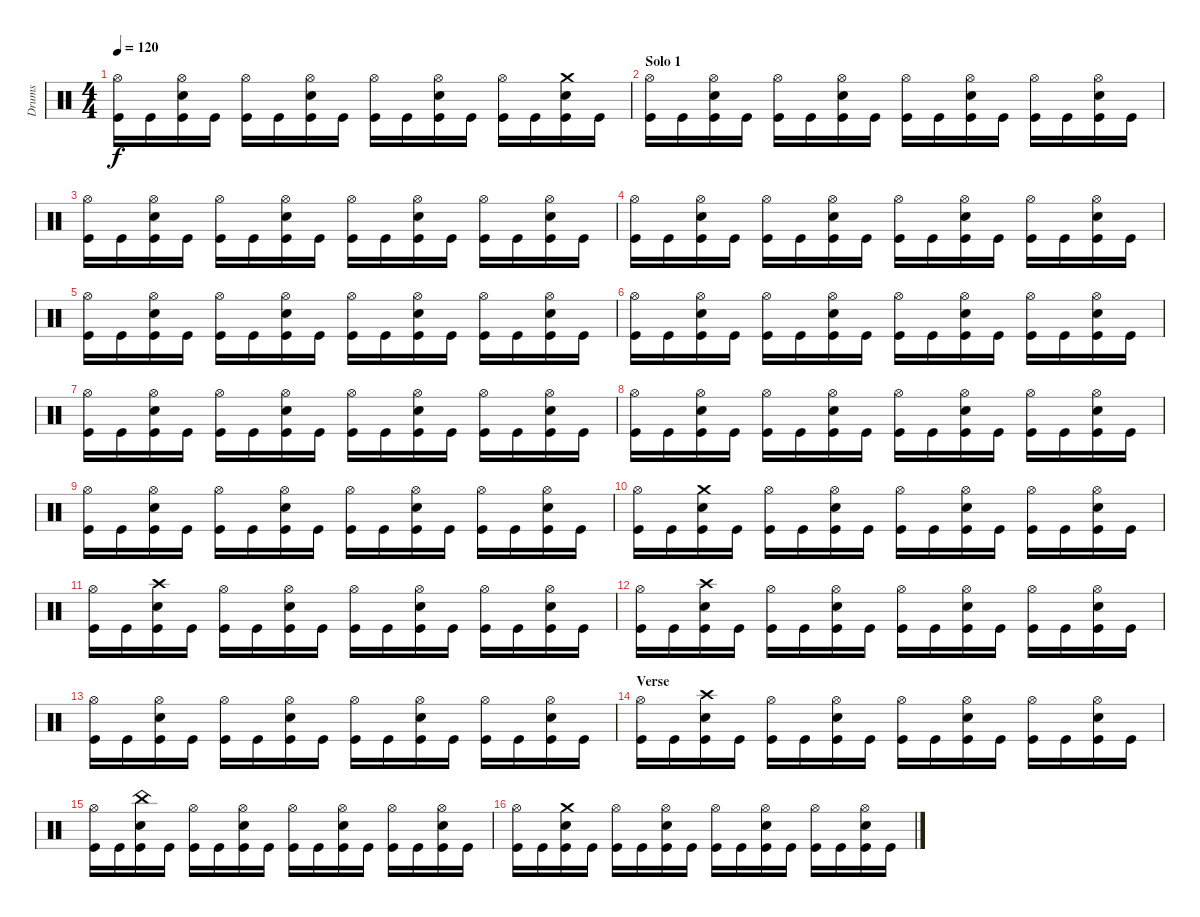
\track ("Drums" "Drums") {instrument percussion}
\staff {score}
\articulation defaults
\ts (4 4)
\tempo 120
\clef neutral
\ks c
("Hi-Hat (open)" "Kick (hit)").16{dy f} "Kick (hit)".16 ("Hi-Hat (open)" "Snare (hit) 2" "Kick (hit)").16 "Kick (hit)".16 ("Hi-Hat (open)" "Kick (hit)").16 "Kick (hit)".16 ("Hi-Hat (open)" "Snare (hit) 2" "Kick (hit)").16 "Kick (hit)".16 ("Hi-Hat (open)" "Kick (hit)").16 "Kick (hit)".16 ("Hi-Hat (open)" "Snare (hit) 2" "Kick (hit)").16 "Kick (hit)".16 ("Hi-Hat (open)" "Kick (hit)").16 "Kick (hit)".16 ("Crash medium (hit)" "Snare (hit) 2" "Kick (hit)").16 "Kick (hit)".16 |
\section ("" "Solo 1")
("Hi-Hat (open)" "Kick (hit)").16 "Kick (hit)".16 ("Hi-Hat (open)" "Snare (hit) 2" "Kick (hit)").16 "Kick (hit)".16 ("Hi-Hat (open)" "Kick (hit)").16 "Kick (hit)".16 ("Hi-Hat (open)" "Snare (hit) 2" "Kick (hit)").16 "Kick (hit)".16 ("Hi-Hat (open)" "Kick (hit)").16 "Kick (hit)".16 ("Hi-Hat (open)" "Snare (hit) 2" "Kick (hit)").16 "Kick (hit)".16 ("Hi-Hat (open)" "Kick (hit)").16 "Kick (hit)".16 ("Hi-Hat (open)" "Snare (hit) 2" "Kick (hit)").16 "Kick (hit)".16 |
("Hi-Hat (open)" "Kick (hit)").16 "Kick (hit)".16 ("Hi-Hat (open)" "Snare (hit) 2" "Kick (hit)").16 "Kick (hit)".16 ("Hi-Hat (open)" "Kick (hit)").16 "Kick (hit)".16 ("Hi-Hat (open)" "Snare (hit) 2" "Kick (hit)").16 "Kick (hit)".16 ("Hi-Hat (open)" "Kick (hit)").16 "Kick (hit)".16 ("Hi-Hat (open)" "Snare (hit) 2" "Kick (hit)").16 "Kick (hit)".16 ("Hi-Hat (open)" "Kick (hit)").16 "Kick (hit)".16 ("Hi-Hat (open)" "Snare (hit) 2" "Kick (hit)").16 "Kick (hit)".16 |
("Hi-Hat (open)" "Kick (hit)").16 "Kick (hit)".16 ("Hi-Hat (open)" "Snare (hit) 2" "Kick (hit)").16 "Kick (hit)".16 ("Hi-Hat (open)" "Kick (hit)").16 "Kick (hit)".16 ("Hi-Hat (open)" "Snare (hit) 2" "Kick (hit)").16 "Kick (hit)".16 ("Hi-Hat (open)" "Kick (hit)").16 "Kick (hit)".16 ("Hi-Hat (open)" "Snare (hit) 2" "Kick (hit)").16 "Kick (hit)".16 ("Hi-Hat (open)" "Kick (hit)").16 "Kick (hit)".16 ("Hi-Hat (open)" "Snare (hit) 2" "Kick (hit)").16 "Kick (hit)".16 |
("Hi-Hat (open)" "Kick (hit)").16 "Kick (hit)".16 ("Hi-Hat (open)" "Snare (hit) 2" "Kick (hit)").16 "Kick (hit)".16 ("Hi-Hat (open)" "Kick (hit)").16 "Kick (hit)".16 ("Hi-Hat (open)" "Snare (hit) 2" "Kick (hit)").16 "Kick (hit)".16 ("Hi-Hat (open)" "Kick (hit)").16 "Kick (hit)".16 ("Hi-Hat (open)" "Snare (hit) 2" "Kick (hit)").16 "Kick (hit)".16 ("Hi-Hat (open)" "Kick (hit)").16 "Kick (hit)".16 ("Hi-Hat (open)" "Snare (hit) 2" "Kick (hit)").16 "Kick (hit)".16 |
("Hi-Hat (open)" "Kick (hit)").16 "Kick (hit)".16 ("Hi-Hat (open)" "Snare (hit) 2" "Kick (hit)").16 "Kick (hit)".16 ("Hi-Hat (open)" "Kick (hit)").16 "Kick (hit)".16 ("Hi-Hat (open)" "Snare (hit) 2" "Kick (hit)").16 "Kick (hit)".16 ("Hi-Hat (open)" "Kick (hit)").16 "Kick (hit)".16 ("Hi-Hat (open)" "Snare (hit) 2" "Kick (hit)").16 "Kick (hit)".16 ("Hi-Hat (open)" "Kick (hit)").16 "Kick (hit)".16 ("Hi-Hat (open)" "Snare (hit) 2" "Kick (hit)").16 "Kick (hit)".16 |
("Hi-Hat (open)" "Kick (hit)").16 "Kick (hit)".16 ("Hi-Hat (open)" "Snare (hit) 2" "Kick (hit)").16 "Kick (hit)".16 ("Hi-Hat (open)" "Kick (hit)").16 "Kick (hit)".16 ("Hi-Hat (open)" "Snare (hit) 2" "Kick (hit)").16 "Kick (hit)".16 ("Hi-Hat (open)" "Kick (hit)").16 "Kick (hit)".16 ("Hi-Hat (open)" "Snare (hit) 2" "Kick (hit)").16 "Kick (hit)".16 ("Hi-Hat (open)" "Kick (hit)").16 "Kick (hit)".16 ("Hi-Hat (open)" "Snare (hit) 2" "Kick (hit)").16 "Kick (hit)".16 |
("Hi-Hat (open)" "Kick (hit)").16 "Kick (hit)".16 ("Hi-Hat (open)" "Snare (hit) 2" "Kick (hit)").16 "Kick (hit)".16 ("Hi-Hat (open)" "Kick (hit)").16 "Kick (hit)".16 ("Hi-Hat (open)" "Snare (hit) 2" "Kick (hit)").16 "Kick (hit)".16 ("Hi-Hat (open)" "Kick (hit)").16 "Kick (hit)".16 ("Hi-Hat (open)" "Snare (hit) 2" "Kick (hit)").16 "Kick (hit)".16 ("Hi-Hat (open)" "Kick (hit)").16 "Kick (hit)".16 ("Hi-Hat (open)" "Snare (hit) 2" "Kick (hit)").16 "Kick (hit)".16 |
("Hi-Hat (open)" "Kick (hit)").16 "Kick (hit)".16 ("Hi-Hat (open)" "Snare (hit) 2" "Kick (hit)").16 "Kick (hit)".16 ("Hi-Hat (open)" "Kick (hit)").16 "Kick (hit)".16 ("Hi-Hat (open)" "Snare (hit) 2" "Kick (hit)").16 "Kick (hit)".16 ("Hi-Hat (open)" "Kick (hit)").16 "Kick (hit)".16 ("Hi-Hat (open)" "Snare (hit) 2" "Kick (hit)").16 "Kick (hit)".16 ("Hi-Hat (open)" "Kick (hit)").16 "Kick (hit)".16 ("Hi-Hat (open)" "Snare (hit) 2" "Kick (hit)").16 "Kick (hit)".16 |
("Hi-Hat (open)" "Kick (hit)").16 "Kick (hit)".16 ("Crash medium (hit)" "Snare (hit) 2" "Kick (hit)").16 "Kick (hit)".16 ("Hi-Hat (open)" "Kick (hit)").16 "Kick (hit)".16 ("Hi-Hat (open)" "Snare (hit) 2" "Kick (hit)").16 "Kick (hit)".16 ("Hi-Hat (open)" "Kick (hit)").16 "Kick (hit)".16 ("Hi-Hat (open)" "Snare (hit) 2" "Kick (hit)").16 "Kick (hit)".16 ("Hi-Hat (open)" "Kick (hit)").16 "Kick (hit)".16 ("Hi-Hat (open)" "Snare (hit) 2" "Kick (hit)").16 "Kick (hit)".16 |
("Hi-Hat (open)" "Kick (hit)").16 "Kick (hit)".16 ("Crash high (hit)" "Snare (hit) 2" "Kick (hit)").16 "Kick (hit)".16 ("Hi-Hat (open)" "Kick (hit)").16 "Kick (hit)".16 ("Hi-Hat (open)" "Snare (hit) 2" "Kick (hit)").16 "Kick (hit)".16 ("Hi-Hat (open)" "Kick (hit)").16 "Kick (hit)".16 ("Hi-Hat (open)" "Snare (hit) 2" "Kick (hit)").16 "Kick (hit)".16 ("Hi-Hat (open)" "Kick (hit)").16 "Kick (hit)".16 ("Hi-Hat (open)" "Snare (hit) 2" "Kick (hit)").16 "Kick (hit)".16 |
("Hi-Hat (open)" "Kick (hit)").16 "Kick (hit)".16 ("Crash high (hit)" "Snare (hit) 2" "Kick (hit)").16 "Kick (hit)".16 ("Hi-Hat (open)" "Kick (hit)").16 "Kick (hit)".16 ("Hi-Hat (open)" "Snare (hit) 2" "Kick (hit)").16 "Kick (hit)".16 ("Hi-Hat (open)" "Kick (hit)").16 "Kick (hit)".16 ("Hi-Hat (open)" "Snare (hit) 2" "Kick (hit)").16 "Kick (hit)".16 ("Hi-Hat (open)" "Kick (hit)").16 "Kick (hit)".16 ("Hi-Hat (open)" "Snare (hit) 2" "Kick (hit)").16 "Kick (hit)".16 |
("Hi-Hat (open)" "Kick (hit)").16 "Kick (hit)".16 ("Hi-Hat (open)" "Snare (hit) 2" "Kick (hit)").16 "Kick (hit)".16 ("Hi-Hat (open)" "Kick (hit)").16 "Kick (hit)".16 ("Hi-Hat (open)" "Snare (hit) 2" "Kick (hit)").16 "Kick (hit)".16 ("Hi-Hat (open)" "Kick (hit)").16 "Kick (hit)".16 ("Hi-Hat (open)" "Snare (hit) 2" "Kick (hit)").16 "Kick (hit)".16 ("Hi-Hat (open)" "Kick (hit)").16 "Kick (hit)".16 ("Hi-Hat (open)" "Snare (hit) 2" "Kick (hit)").16 "Kick (hit)".16 |
\section ("" "Verse")
("Hi-Hat (open)" "Kick (hit)").16 "Kick (hit)".16 ("Crash high (hit)" "Snare (hit) 2" "Kick (hit)").16 "Kick (hit)".16 ("Hi-Hat (open)" "Kick (hit)").16 "Kick (hit)".16 ("Hi-Hat (open)" "Snare (hit) 2" "Kick (hit)").16 "Kick (hit)".16 ("Hi-Hat (open)" "Kick (hit)").16 "Kick (hit)".16 ("Hi-Hat (open)" "Snare (hit) 2" "Kick (hit)").16 "Kick (hit)".16 ("Hi-Hat (open)" "Kick (hit)").16 "Kick (hit)".16 ("Hi-Hat (open)" "Snare (hit) 2" "Kick (hit)").16 "Kick (hit)".16 |
("Hi-Hat (open)" "Kick (hit)").16 "Kick (hit)".16 ("China (hit)" "Snare (hit) 2" "Kick (hit)").16 "Kick (hit)".16 ("Hi-Hat (open)" "Kick (hit)").16 "Kick (hit)".16 ("Hi-Hat (open)" "Snare (hit) 2" "Kick (hit)").16 "Kick (hit)".16 ("Hi-Hat (open)" "Kick (hit)").16 "Kick (hit)".16 ("Hi-Hat (open)" "Snare (hit) 2" "Kick (hit)").16 "Kick (hit)".16 ("Hi-Hat (open)" "Kick (hit)").16 "Kick (hit)".16 ("Hi-Hat (open)" "Snare (hit) 2" "Kick (hit)").16 "Kick (hit)".16 |
("Hi-Hat (open)" "Kick (hit)").16 "Kick (hit)".16 ("Crash medium (hit)" "Snare (hit) 2" "Kick (hit)").16 "Kick (hit)".16 ("Hi-Hat (open)" "Kick (hit)").16 "Kick (hit)".16 ("Hi-Hat (open)" "Snare (hit) 2" "Kick (hit)").16 "Kick (hit)".16 ("Hi-Hat (open)" "Kick (hit)").16 "Kick (hit)".16 ("Hi-Hat (open)" "Snare (hit) 2" "Kick (hit)").16 "Kick (hit)".16 ("Hi-Hat (open)" "Kick (hit)").16 "Kick (hit)".16 ("Hi-Hat (open)" "Snare (hit) 2" "Kick (hit)").16 "Kick (hit)".16
